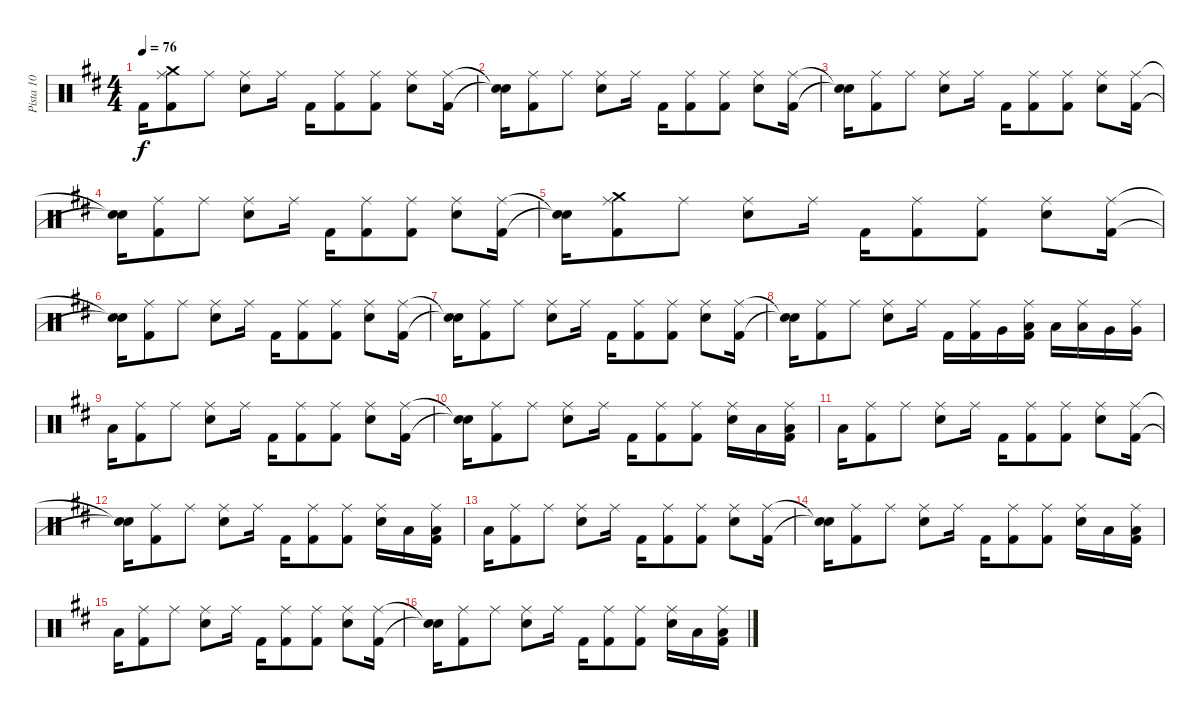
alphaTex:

\track ("Pista 10" "Pista 10") {instrument percussion}
\staff {score}
\articulation defaults
\ts (4 4)
\tempo 76
\clef neutral
\ks d "Kick (hit) 2".16{dy f}
("Kick (hit) 2" "Crash medium (hit)" "Ride (middle)").8 "Ride (middle)".8 ("Snare (hit) 2" "Ride (middle)").8 "Ride (middle)".16 "Kick (hit) 2".16 ("Kick (hit) 2" "Ride (middle)").8 ("Kick (hit) 2" "Ride (middle)").8 ("Snare (hit) 2" "Ride (middle)").8 ("Kick (hit) 2" "Ride (middle)").16 |
("Snare (hit)"{t} "Snare (hit)"{t}).16 ("Kick (hit) 2" "Ride (middle)").8 "Ride (middle)".8 ("Snare (hit) 2" "Ride (middle)").8 "Ride (middle)".16 "Kick (hit) 2".16 ("Kick (hit) 2" "Ride (middle)").8 ("Kick (hit) 2" "Ride (middle)").8 ("Snare (hit) 2" "Ride (middle)").8 ("Kick (hit) 2" "Ride (middle)").16 |
("Snare (hit)"{t} "Snare (hit)"{t}).16 ("Kick (hit) 2" "Ride (middle)").8 "Ride (middle)".8 ("Snare (hit) 2" "Ride (middle)").8 "Ride (middle)".16 "Kick (hit) 2".16 ("Kick (hit) 2" "Ride (middle)").8 ("Kick (hit) 2" "Ride (middle)").8 ("Snare (hit) 2" "Ride (middle)").8 ("Kick (hit) 2" "Ride (middle)").16 |
("Snare (hit)"{t} "Snare (hit)"{t}).16 ("Kick (hit) 2" "Ride (middle)").8 "Ride (middle)".8 ("Snare (hit) 2" "Ride (middle)").8 "Ride (middle)".16 "Kick (hit) 2".16 ("Kick (hit) 2" "Ride (middle)").8 ("Kick (hit) 2" "Ride (middle)").8 ("Snare (hit) 2" "Ride (middle)").8 ("Kick (hit) 2" "Ride (middle)").16 |
("Snare (hit)"{t} "Snare (hit)"{t}).16 ("Kick (hit) 2" "Crash medium (hit)" "Ride (middle)").8 "Ride (middle)".8 ("Snare (hit) 2" "Ride (middle)").8 "Ride (middle)".16 "Kick (hit) 2".16 ("Kick (hit) 2" "Ride (middle)").8 ("Kick (hit) 2" "Ride (middle)").8 ("Snare (hit) 2" "Ride (middle)").8 ("Kick (hit) 2" "Ride (middle)").16 |
("Snare (hit)"{t} "Snare (hit)"{t}).16 ("Kick (hit) 2" "Ride (middle)").8 "Ride (middle)".8 ("Snare (hit) 2" "Ride (middle)").8 "Ride (middle)".16 "Kick (hit) 2".16 ("Kick (hit) 2" "Ride (middle)").8 ("Kick (hit) 2" "Ride (middle)").8 ("Snare (hit) 2" "Ride (middle)").8 ("Kick (hit) 2" "Ride (middle)").16 |
("Snare (hit)"{t} "Snare (hit)"{t}).16 ("Kick (hit) 2" "Ride (middle)").8 "Ride (middle)".8 ("Snare (hit) 2" "Ride (middle)").8 "Ride (middle)".16 "Kick (hit) 2".16 ("Kick (hit) 2" "Ride (middle)").8 ("Kick (hit) 2" "Ride (middle)").8 ("Snare (hit) 2" "Ride (middle)").8 ("Kick (hit) 2" "Ride (middle)").16 |
("Snare (hit)"{t} "Snare (hit)"{t}).16 ("Kick (hit) 2" "Ride (middle)").8 "Ride (middle)".8 ("Snare (hit) 2" "Ride (middle)").8 "Ride (middle)".16 "Kick (hit) 2".16 ("Kick (hit) 2" "Ride (middle)").16 "Very Low Tom (hit)".16 ("Kick (hit) 2" "Ride (middle)" "Low Tom (hit)").16 "Low Tom (hit)".16 ("Ride (middle)" "Low Tom (hit)").16 "Very Low Tom (hit)".16 ("Very Low Tom (hit)" "Ride (middle)").16 |
"Low Floor Tom (hit)".16 ("Kick (hit) 2" "Ride (middle)").8 "Ride (middle)".8 ("Snare (hit) 2" "Ride (middle)").8 "Ride (middle)".16 "Kick (hit) 2".16 ("Kick (hit) 2" "Ride (middle)").8 ("Kick (hit) 2" "Ride (middle)").8 ("Snare (hit) 2" "Ride (middle)").8 ("Kick (hit) 2" "Ride (middle)").16 |
("Snare (hit)"{t} "Snare (hit)"{t}).16 ("Kick (hit) 2" "Ride (middle)").8 "Ride (middle)".8 ("Snare (hit) 2" "Ride (middle)").8 "Ride (middle)".16 "Kick (hit) 2".16 ("Kick (hit) 2" "Ride (middle)").8 ("Kick (hit) 2" "Ride (middle)").8 ("Snare (hit) 2" "Ride (middle)").16 "Low Tom (hit)".16 ("Kick (hit) 2" "Ride (middle)" "Low Tom (hit)").16 |
"Low Floor Tom (hit)".16 ("Kick (hit) 2" "Ride (middle)").8 "Ride (middle)".8 ("Snare (hit) 2" "Ride (middle)").8 "Ride (middle)".16 "Kick (hit) 2".16 ("Kick (hit) 2" "Ride (middle)").8 ("Kick (hit) 2" "Ride (middle)").8 ("Snare (hit) 2" "Ride (middle)").8 ("Kick (hit) 2" "Ride (middle)").16 |
("Snare (hit)"{t} "Snare (hit)"{t}).16 ("Kick (hit) 2" "Ride (middle)").8 "Ride (middle)".8 ("Snare (hit) 2" "Ride (middle)").8 "Ride (middle)".16 "Kick (hit) 2".16 ("Kick (hit) 2" "Ride (middle)").8 ("Kick (hit) 2" "Ride (middle)").8 ("Snare (hit) 2" "Ride (middle)").16 "Low Tom (hit)".16 ("Kick (hit) 2" "Ride (middle)" "Low Tom (hit)").16 |
"Low Floor Tom (hit)".16 ("Kick (hit) 2" "Ride (middle)").8 "Ride (middle)".8 ("Snare (hit) 2" "Ride (middle)").8 "Ride (middle)".16 "Kick (hit) 2".16 ("Kick (hit) 2" "Ride (middle)").8 ("Kick (hit) 2" "Ride (middle)").8 ("Snare (hit) 2" "Ride (middle)").8 ("Kick (hit) 2" "Ride (middle)").16 |
("Snare (hit)"{t} "Snare (hit)"{t}).16 ("Kick (hit) 2" "Ride (middle)").8 "Ride (middle)".8 ("Snare (hit) 2" "Ride (middle)").8 "Ride (middle)".16 "Kick (hit) 2".16 ("Kick (hit) 2" "Ride (middle)").8 ("Kick (hit) 2" "Ride (middle)").8 ("Snare (hit) 2" "Ride (middle)").16 "Low Tom (hit)".16 ("Kick (hit) 2" "Ride (middle)" "Low Tom (hit)").16 |
"Low Floor Tom (hit)".16 ("Kick (hit) 2" "Ride (middle)").8 "Ride (middle)".8 ("Snare (hit) 2" "Ride (middle)").8 "Ride (middle)".16 "Kick (hit) 2".16 ("Kick (hit) 2" "Ride (middle)").8 ("Kick (hit) 2" "Ride (middle)").8 ("Snare (hit) 2" "Ride (middle)").8 ("Kick (hit) 2" "Ride (middle)").16 |
("Snare (hit)"{t} "Snare (hit)"{t}).16 ("Kick (hit) 2" "Ride (middle)").8 "Ride (middle)".8 ("Snare (hit) 2" "Ride (middle)").8 "Ride (middle)".16 "Kick (hit) 2".16 ("Kick (hit) 2" "Ride (middle)").8 ("Kick (hit) 2" "Ride (middle)").8 ("Snare (hit) 2" "Ride (middle)").16 "Low Tom (hit)".16 ("Kick (hit) 2" "Ride (middle)" "Low Tom (hit)").16
